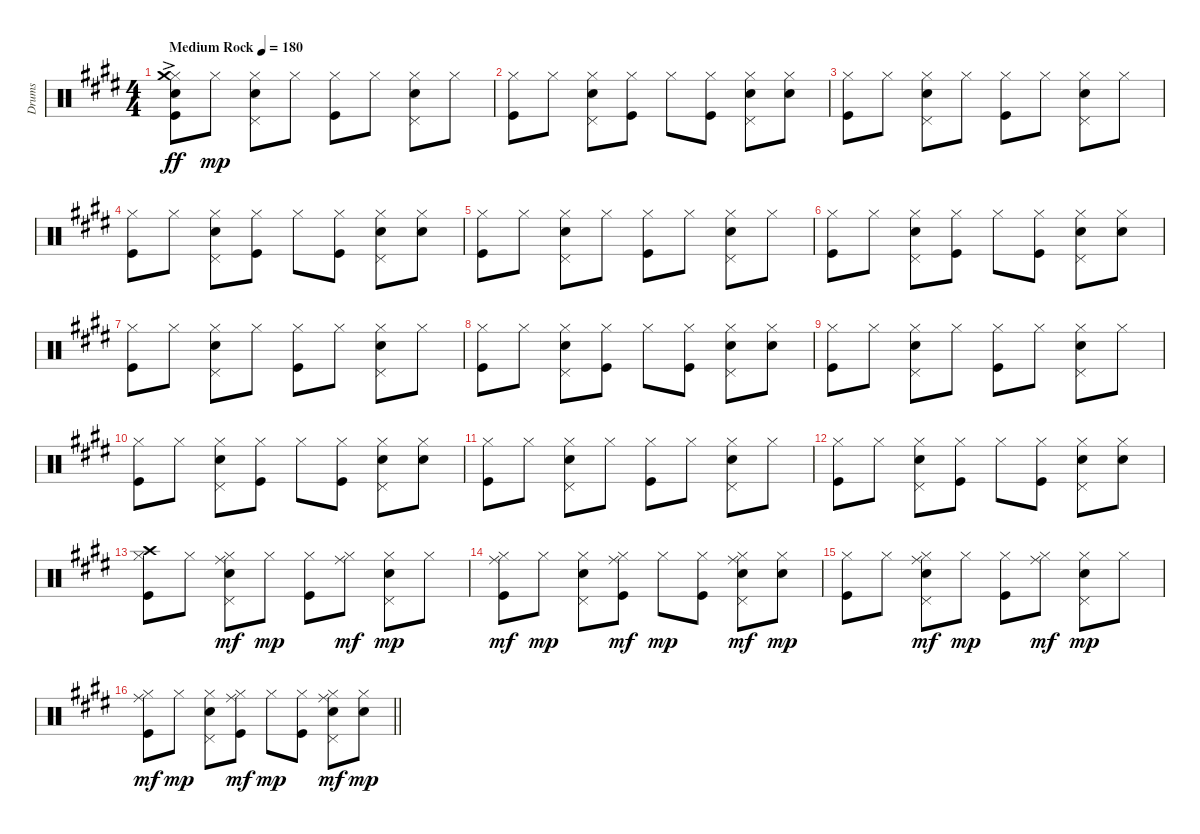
\track ("Drums" "Drums") {instrument percussion}
\staff {score}
\articulation defaults
\ts (4 4)
\tempo (180 "Medium Rock")
\clef neutral
\ks e
("Hi-Hat (closed)"{ac} "Crash medium (hit)"{ac} "Snare (hit) 2"{ac} "Kick (hit)"{ac}).8{dy ff} "Hi-Hat (closed)".8{dy mp} ("Hi-Hat (closed)" "Snare (hit) 2" "Pedal Hi-Hat (hit)").8 "Hi-Hat (closed)".8 ("Hi-Hat (closed)" "Kick (hit)").8 "Hi-Hat (closed)".8 ("Hi-Hat (closed)" "Snare (hit) 2" "Pedal Hi-Hat (hit)").8 "Hi-Hat (closed)".8 |
("Hi-Hat (closed)" "Kick (hit)").8 "Hi-Hat (closed)".8 ("Hi-Hat (closed)" "Snare (hit) 2" "Pedal Hi-Hat (hit)").8 ("Hi-Hat (closed)" "Kick (hit)").8 "Hi-Hat (closed)".8 ("Hi-Hat (closed)" "Kick (hit)").8 ("Hi-Hat (closed)" "Snare (hit) 2" "Pedal Hi-Hat (hit)").8 ("Hi-Hat (closed)" "Snare (hit) 2").8 |
("Hi-Hat (closed)" "Kick (hit)").8 "Hi-Hat (closed)".8 ("Hi-Hat (closed)" "Snare (hit) 2" "Pedal Hi-Hat (hit)").8 "Hi-Hat (closed)".8 ("Hi-Hat (closed)" "Kick (hit)").8 "Hi-Hat (closed)".8 ("Hi-Hat (closed)" "Snare (hit) 2" "Pedal Hi-Hat (hit)").8 "Hi-Hat (closed)".8 |
("Hi-Hat (closed)" "Kick (hit)").8 "Hi-Hat (closed)".8 ("Hi-Hat (closed)" "Snare (hit) 2" "Pedal Hi-Hat (hit)").8 ("Hi-Hat (closed)" "Kick (hit)").8 "Hi-Hat (closed)".8 ("Hi-Hat (closed)" "Kick (hit)").8 ("Hi-Hat (closed)" "Snare (hit) 2" "Pedal Hi-Hat (hit)").8 ("Hi-Hat (closed)" "Snare (hit) 2").8 |
("Hi-Hat (closed)" "Kick (hit)").8 "Hi-Hat (closed)".8 ("Hi-Hat (closed)" "Snare (hit) 2" "Pedal Hi-Hat (hit)").8 "Hi-Hat (closed)".8 ("Hi-Hat (closed)" "Kick (hit)").8 "Hi-Hat (closed)".8 ("Hi-Hat (closed)" "Snare (hit) 2" "Pedal Hi-Hat (hit)").8 "Hi-Hat (closed)".8 |
("Hi-Hat (closed)" "Kick (hit)").8 "Hi-Hat (closed)".8 ("Hi-Hat (closed)" "Snare (hit) 2" "Pedal Hi-Hat (hit)").8 ("Hi-Hat (closed)" "Kick (hit)").8 "Hi-Hat (closed)".8 ("Hi-Hat (closed)" "Kick (hit)").8 ("Hi-Hat (closed)" "Snare (hit) 2" "Pedal Hi-Hat (hit)").8 ("Hi-Hat (closed)" "Snare (hit) 2").8 |
("Hi-Hat (closed)" "Kick (hit)").8 "Hi-Hat (closed)".8 ("Hi-Hat (closed)" "Snare (hit) 2" "Pedal Hi-Hat (hit)").8 "Hi-Hat (closed)".8 ("Hi-Hat (closed)" "Kick (hit)").8 "Hi-Hat (closed)".8 ("Hi-Hat (closed)" "Snare (hit) 2" "Pedal Hi-Hat (hit)").8 "Hi-Hat (closed)".8 |
("Hi-Hat (closed)" "Kick (hit)").8 "Hi-Hat (closed)".8 ("Hi-Hat (closed)" "Snare (hit) 2" "Pedal Hi-Hat (hit)").8 ("Hi-Hat (closed)" "Kick (hit)").8 "Hi-Hat (closed)".8 ("Hi-Hat (closed)" "Kick (hit)").8 ("Hi-Hat (closed)" "Snare (hit) 2" "Pedal Hi-Hat (hit)").8 ("Hi-Hat (closed)" "Snare (hit) 2").8 |
("Hi-Hat (closed)" "Kick (hit)").8 "Hi-Hat (closed)".8 ("Hi-Hat (closed)" "Snare (hit) 2" "Pedal Hi-Hat (hit)").8 "Hi-Hat (closed)".8 ("Hi-Hat (closed)" "Kick (hit)").8 "Hi-Hat (closed)".8 ("Hi-Hat (closed)" "Snare (hit) 2" "Pedal Hi-Hat (hit)").8 "Hi-Hat (closed)".8 |
("Hi-Hat (closed)" "Kick (hit)").8 "Hi-Hat (closed)".8 ("Hi-Hat (closed)" "Snare (hit) 2" "Pedal Hi-Hat (hit)").8 ("Hi-Hat (closed)" "Kick (hit)").8 "Hi-Hat (closed)".8 ("Hi-Hat (closed)" "Kick (hit)").8 ("Hi-Hat (closed)" "Snare (hit) 2" "Pedal Hi-Hat (hit)").8 ("Hi-Hat (closed)" "Snare (hit) 2").8 |
("Hi-Hat (closed)" "Kick (hit)").8 "Hi-Hat (closed)".8 ("Hi-Hat (closed)" "Snare (hit) 2" "Pedal Hi-Hat (hit)").8 "Hi-Hat (closed)".8 ("Hi-Hat (closed)" "Kick (hit)").8 "Hi-Hat (closed)".8 ("Hi-Hat (closed)" "Snare (hit) 2" "Pedal Hi-Hat (hit)").8 "Hi-Hat (closed)".8 |
("Hi-Hat (closed)" "Kick (hit)").8 "Hi-Hat (closed)".8 ("Hi-Hat (closed)" "Snare (hit) 2" "Pedal Hi-Hat (hit)").8 ("Hi-Hat (closed)" "Kick (hit)").8 "Hi-Hat (closed)".8 ("Hi-Hat (closed)" "Kick (hit)").8 ("Hi-Hat (closed)" "Snare (hit) 2" "Pedal Hi-Hat (hit)").8 ("Hi-Hat (closed)" "Snare (hit) 2").8 |
("Hi-Hat (closed)" "Crash high (hit)" "Kick (hit)").8 "Hi-Hat (closed)".8 ("Hi-Hat (closed)" "Ride (middle)" "Snare (hit) 2" "Pedal Hi-Hat (hit)").8{dy mf} "Hi-Hat (closed)".8{dy mp} ("Hi-Hat (closed)" "Kick (hit)").8 ("Hi-Hat (closed)" "Ride (middle)").8{dy mf} ("Hi-Hat (closed)" "Snare (hit) 2" "Pedal Hi-Hat (hit)").8{dy mp} "Hi-Hat (closed)".8 |
("Hi-Hat (closed)" "Ride (middle)" "Kick (hit)").8{dy mf} "Hi-Hat (closed)".8{dy mp} ("Hi-Hat (closed)" "Snare (hit) 2" "Pedal Hi-Hat (hit)").8 ("Hi-Hat (closed)" "Ride (middle)" "Kick (hit)").8{dy mf} "Hi-Hat (closed)".8{dy mp} ("Hi-Hat (closed)" "Kick (hit)").8 ("Hi-Hat (closed)" "Ride (middle)" "Snare (hit) 2" "Pedal Hi-Hat (hit)").8{dy mf} ("Hi-Hat (closed)" "Snare (hit) 2").8{dy mp} |
("Hi-Hat (closed)" "Kick (hit)").8 "Hi-Hat (closed)".8 ("Hi-Hat (closed)" "Ride (middle)" "Snare (hit) 2" "Pedal Hi-Hat (hit)").8{dy mf} "Hi-Hat (closed)".8{dy mp} ("Hi-Hat (closed)" "Kick (hit)").8 ("Hi-Hat (closed)" "Ride (middle)").8{dy mf} ("Hi-Hat (closed)" "Snare (hit) 2" "Pedal Hi-Hat (hit)").8{dy mp} "Hi-Hat (closed)".8 |
\barLineRight lightlight
("Hi-Hat (closed)" "Ride (middle)" "Kick (hit)").8{dy mf} "Hi-Hat (closed)".8{dy mp} ("Hi-Hat (closed)" "Snare (hit) 2" "Pedal Hi-Hat (hit)").8 ("Hi-Hat (closed)" "Ride (middle)" "Kick (hit)").8{dy mf} "Hi-Hat (closed)".8{dy mp} ("Hi-Hat (closed)" "Kick (hit)").8 ("Hi-Hat (closed)" "Ride (middle)" "Snare (hit) 2" "Pedal Hi-Hat (hit)").8{dy mf} ("Hi-Hat (closed)" "Snare (hit) 2").8{dy mp}
